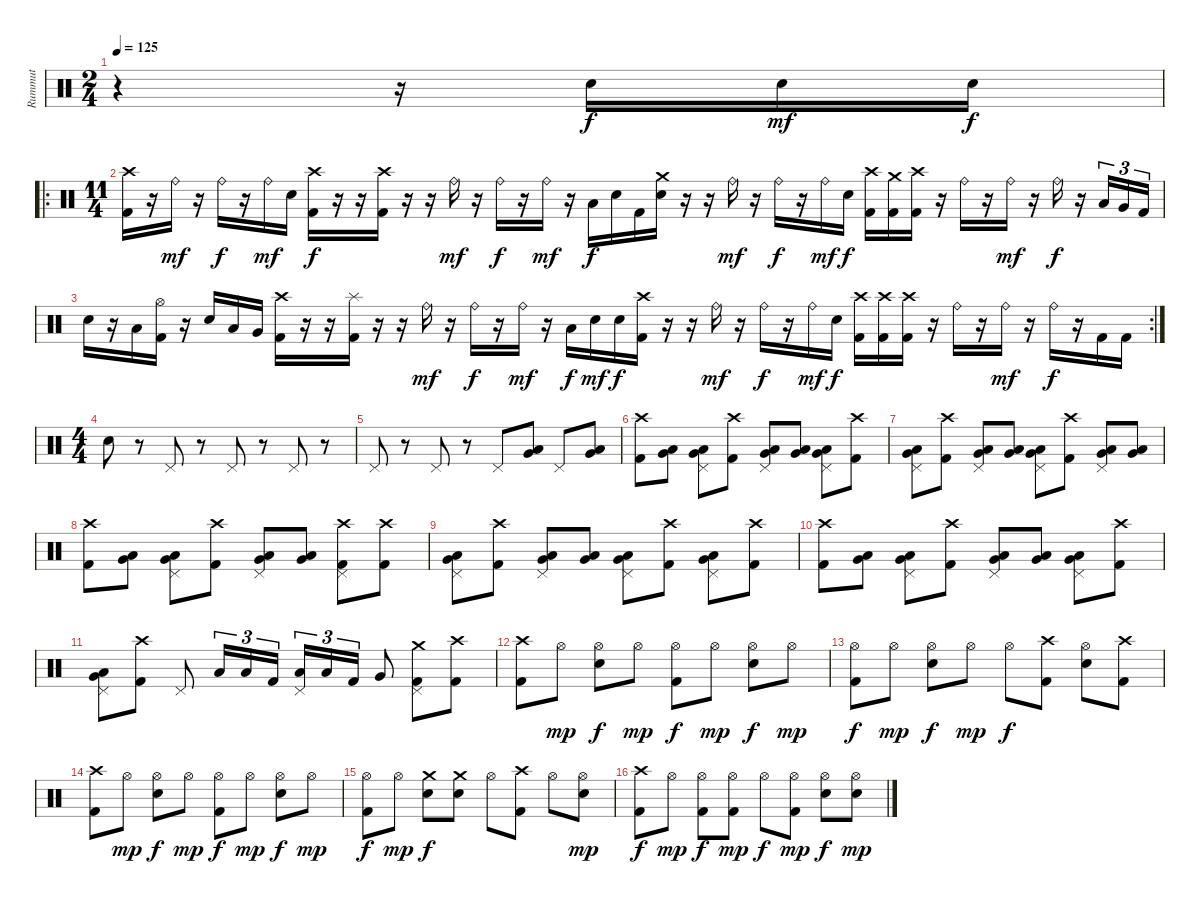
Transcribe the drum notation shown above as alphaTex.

\track ("Rummut" "Rummut") {instrument percussion}
\staff {score}
\articulation defaults
\ts (2 4)
\tempo 125
\clef neutral
\ks c
r.4{dy f} r.16 "Electric Snare (hit)".16 "Electric Snare (hit)".16{dy mf} "Electric Snare (hit)".16{dy f} |
\ro
\ts (11 4)
("Crash high (hit)" "Kick (hit) 2").16 r.16 "Ride (bell)".16{dy mf} r.16 "Ride (bell)".16{dy f} r.16 "Ride (bell)".16{dy mf} "Electric Snare (hit)".16 ("Crash high (hit)" "Kick (hit) 2").16{dy f} r.16 r.16 ("Crash high (hit)" "Kick (hit) 2").16 r.16 r.16 "Ride (bell)".16{dy mf} r.16 "Ride (bell)".16{dy f} r.16 "Ride (bell)".16{dy mf} r.16 "Low Tom (hit)".16{dy f} "Electric Snare (hit)".16 "Kick (hit) 2".16 ("Crash medium (hit)" "Electric Snare (hit)").16 r.16 r.16 "Ride (bell)".16{dy mf} r.16 "Ride (bell)".16{dy f} r.16 "Ride (bell)".16{dy mf} "Electric Snare (hit)".16{dy f} ("Crash high (hit)" "Kick (hit) 2").16 ("Crash medium (hit)" "Kick (hit) 2").16 ("Crash high (hit)" "Kick (hit) 2").16 r.16 "Ride (bell)".16 r.16 "Ride (bell)".16{dy mf} r.16 "Ride (bell)".16{dy f} r.16 "Low Tom (hit)".16{tu (3 2)} "Very Low Tom (hit)".16{tu (3 2)} "Kick (hit) 2".16{tu (3 2)} |
\rc 2 "Electric Snare (hit)".16
r.16 "Low Tom (hit)".16 ("Hi-Hat (open)" "Kick (hit) 2").16 r.16 "Electric Snare (hit)".16 "Low Tom (hit)".16 "Very Low Tom (hit)".16 ("Crash high (hit)" "Kick (hit) 2").16 r.16 r.16 ("Splash (hit)" "Kick (hit) 2").16 r.16 r.16 "Ride (bell)".16{dy mf} r.16 "Ride (bell)".16{dy f} r.16 "Ride (bell)".16{dy mf} r.16 "Low Tom (hit)".16{dy f} "Electric Snare (hit)".16{dy mf} "Electric Snare (hit)".16{dy f} ("Crash high (hit)" "Kick (hit) 2").16 r.16 r.16 "Ride (bell)".16{dy mf} r.16 "Ride (bell)".16{dy f} r.16 "Ride (bell)".16{dy mf} "Electric Snare (hit)".16{dy f} ("Crash high (hit)" "Kick (hit) 2").16 ("Crash high (hit)" "Kick (hit) 2").16 ("Crash high (hit)" "Kick (hit) 2").16 r.16 "Ride (bell)".16 r.16 "Ride (bell)".16{dy mf} r.16 "Ride (bell)".16{dy f} r.16 "Kick (hit) 2".16 "Kick (hit) 2".16 |
\ts (4 4)
"Electric Snare (hit)".8 r.8 "Pedal Hi-Hat (hit)".8 r.8 "Pedal Hi-Hat (hit)".8 r.8 "Pedal Hi-Hat (hit)".8 r.8 |
"Pedal Hi-Hat (hit)".8 r.8 "Pedal Hi-Hat (hit)".8 r.8 "Pedal Hi-Hat (hit)".8 ("Very Low Tom (hit)" "Low Floor Tom (hit)").8 "Pedal Hi-Hat (hit)".8 ("Very Low Tom (hit)" "Low Floor Tom (hit)").8 |
("Crash high (hit)" "Kick (hit) 2").8 ("Very Low Tom (hit)" "Low Floor Tom (hit)").8 ("Pedal Hi-Hat (hit)" "Very Low Tom (hit)" "Low Floor Tom (hit)").8 ("Crash high (hit)" "Kick (hit) 2").8 ("Pedal Hi-Hat (hit)" "Very Low Tom (hit)" "Low Floor Tom (hit)").8 ("Very Low Tom (hit)" "Low Floor Tom (hit)").8 ("Pedal Hi-Hat (hit)" "Very Low Tom (hit)" "Low Floor Tom (hit)").8 ("Crash high (hit)" "Kick (hit) 2").8 |
("Pedal Hi-Hat (hit)" "Very Low Tom (hit)" "Low Floor Tom (hit)").8 ("Crash high (hit)" "Kick (hit) 2").8 ("Pedal Hi-Hat (hit)" "Very Low Tom (hit)" "Low Floor Tom (hit)").8 ("Very Low Tom (hit)" "Low Floor Tom (hit)").8 ("Pedal Hi-Hat (hit)" "Very Low Tom (hit)" "Low Floor Tom (hit)").8 ("Crash high (hit)" "Kick (hit) 2").8 ("Pedal Hi-Hat (hit)" "Very Low Tom (hit)" "Low Floor Tom (hit)").8 ("Very Low Tom (hit)" "Low Floor Tom (hit)").8 |
("Crash high (hit)" "Kick (hit) 2").8 ("Very Low Tom (hit)" "Low Floor Tom (hit)").8 ("Pedal Hi-Hat (hit)" "Very Low Tom (hit)" "Low Floor Tom (hit)").8 ("Crash high (hit)" "Kick (hit) 2").8 ("Pedal Hi-Hat (hit)" "Very Low Tom (hit)" "Low Floor Tom (hit)").8 ("Very Low Tom (hit)" "Low Floor Tom (hit)").8 ("Crash high (hit)" "Pedal Hi-Hat (hit)" "Kick (hit) 2").8 ("Crash high (hit)" "Kick (hit) 2").8 |
("Pedal Hi-Hat (hit)" "Very Low Tom (hit)" "Low Floor Tom (hit)").8 ("Crash high (hit)" "Kick (hit) 2").8 ("Pedal Hi-Hat (hit)" "Very Low Tom (hit)" "Low Floor Tom (hit)").8 ("Very Low Tom (hit)" "Low Floor Tom (hit)").8 ("Pedal Hi-Hat (hit)" "Very Low Tom (hit)" "Low Floor Tom (hit)").8 ("Crash high (hit)" "Kick (hit) 2").8 ("Pedal Hi-Hat (hit)" "Very Low Tom (hit)" "Low Floor Tom (hit)").8 ("Crash high (hit)" "Kick (hit) 2").8 |
("Crash high (hit)" "Kick (hit) 2").8 ("Very Low Tom (hit)" "Low Floor Tom (hit)").8 ("Pedal Hi-Hat (hit)" "Very Low Tom (hit)" "Low Floor Tom (hit)").8 ("Crash high (hit)" "Kick (hit) 2").8 ("Pedal Hi-Hat (hit)" "Very Low Tom (hit)" "Low Floor Tom (hit)").8 ("Very Low Tom (hit)" "Low Floor Tom (hit)").8 ("Pedal Hi-Hat (hit)" "Very Low Tom (hit)" "Low Floor Tom (hit)").8 ("Crash high (hit)" "Kick (hit) 2").8 |
("Pedal Hi-Hat (hit)" "Very Low Tom (hit)" "Low Floor Tom (hit)").8 ("Crash high (hit)" "Kick (hit) 2").8 "Pedal Hi-Hat (hit)".8 "Low Tom (hit)".16{tu (3 2)} "Low Floor Tom (hit)".16{tu (3 2)} "Kick (hit) 2".16{tu (3 2)} ("Pedal Hi-Hat (hit)" "Low Tom (hit)").16{tu (3 2)} "Low Floor Tom (hit)".16{tu (3 2)} "Kick (hit) 2".16{tu (3 2)} "Very Low Tom (hit)".8 ("Crash medium (hit)" "Pedal Hi-Hat (hit)" "Kick (hit) 2").8 ("Crash high (hit)" "Kick (hit) 2").8 |
("Crash high (hit)" "Kick (hit) 2").8 "Hi-Hat (open)".8{dy mp} ("Hi-Hat (open)" "Electric Snare (hit)").8{dy f} "Hi-Hat (open)".8{dy mp} ("Hi-Hat (open)" "Kick (hit) 2").8{dy f} "Hi-Hat (open)".8{dy mp} ("Hi-Hat (open)" "Electric Snare (hit)").8{dy f} "Hi-Hat (open)".8{dy mp} |
("Hi-Hat (open)" "Kick (hit) 2").8{dy f} "Hi-Hat (open)".8{dy mp} ("Hi-Hat (open)" "Electric Snare (hit)").8{dy f} "Hi-Hat (open)".8{dy mp} "Hi-Hat (open)".8{dy f} ("Crash high (hit)" "Kick (hit) 2").8 ("Hi-Hat (open)" "Electric Snare (hit)").8 ("Crash high (hit)" "Kick (hit) 2").8 |
("Crash high (hit)" "Kick (hit) 2").8 "Hi-Hat (open)".8{dy mp} ("Hi-Hat (open)" "Electric Snare (hit)").8{dy f} "Hi-Hat (open)".8{dy mp} ("Hi-Hat (open)" "Kick (hit) 2").8{dy f} "Hi-Hat (open)".8{dy mp} ("Hi-Hat (open)" "Electric Snare (hit)").8{dy f} "Hi-Hat (open)".8{dy mp} |
("Hi-Hat (open)" "Kick (hit) 2").8{dy f} "Hi-Hat (open)".8{dy mp} ("Crash medium (hit)" "Electric Snare (hit)").8{dy f} ("Crash medium (hit)" "Electric Snare (hit)").8 "Hi-Hat (open)".8 ("Crash high (hit)" "Kick (hit) 2").8 "Hi-Hat (open)".8 ("Hi-Hat (open)" "Electric Snare (hit)").8{dy mp} |
("Crash high (hit)" "Kick (hit) 2").8{dy f} "Hi-Hat (open)".8{dy mp} ("Hi-Hat (open)" "Kick (hit) 2").8{dy f} ("Hi-Hat (open)" "Kick (hit) 2").8{dy mp} "Hi-Hat (open)".8{dy f} ("Hi-Hat (open)" "Kick (hit) 2").8{dy mp} ("Hi-Hat (open)" "Electric Snare (hit)").8{dy f} ("Hi-Hat (open)" "Electric Snare (hit)").8{dy mp}
